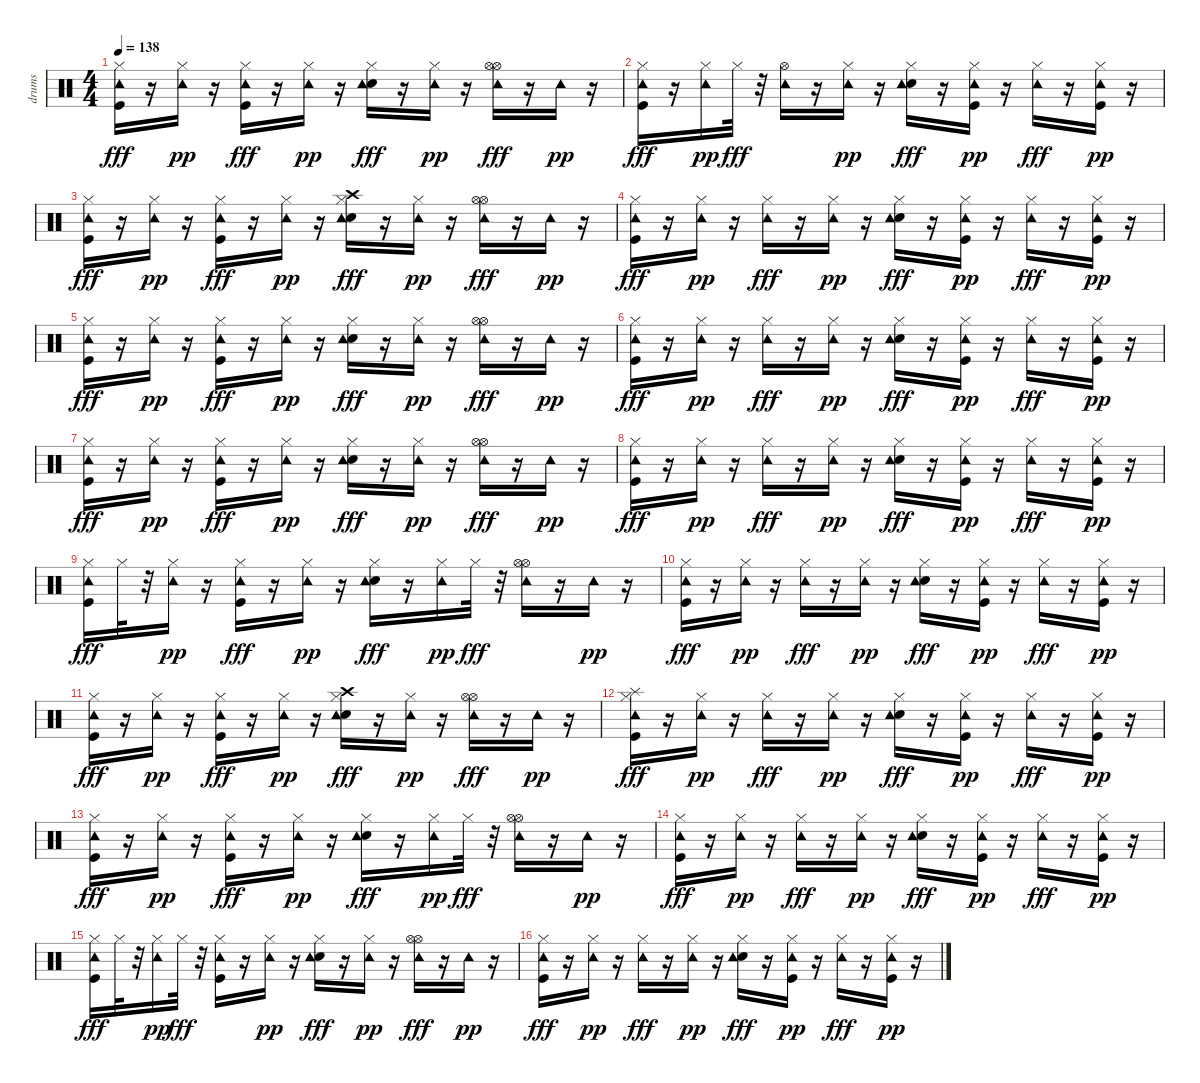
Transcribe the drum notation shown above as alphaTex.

\track ("drums" "drums") {instrument percussion}
\staff {score}
\articulation defaults
\ts (4 4)
\tempo 138
\clef neutral
\ks c
("Hi-Hat (closed)" "Kick (hit)" "Tambourine (hit)").16{dy fff} r.16 ("Hi-Hat (closed)" "Tambourine (hit)").16{dy pp} r.16 ("Hi-Hat (closed)" "Kick (hit)" "Tambourine (hit)").16{dy fff} r.16 ("Hi-Hat (closed)" "Tambourine (hit)").16{dy pp} r.16 ("Metronome (bell)" "Hi-Hat (closed)" "Tambourine (hit)").16{dy fff} r.16 ("Hi-Hat (closed)" "Tambourine (hit)").16{dy pp} r.16 ("Hi-Hat (open)" "Hi-Hat (open)" "Tambourine (hit)").16{dy fff} r.16 "Tambourine (hit)".16{dy pp} r.16 |
("Hi-Hat (closed)" "Kick (hit)" "Tambourine (hit)").16{dy fff} r.16 ("Hi-Hat (closed)" "Tambourine (hit)").16{dy pp} "Hi-Hat (closed)".32{dy fff} r.32 ("Hi-Hat (open)" "Tambourine (hit)").16 r.16 ("Hi-Hat (closed)" "Tambourine (hit)").16{dy pp} r.16 ("Metronome (bell)" "Hi-Hat (closed)" "Tambourine (hit)").16{dy fff} r.16 ("Hi-Hat (closed)" "Kick (hit)" "Tambourine (hit)").16{dy pp} r.16 ("Hi-Hat (closed)" "Tambourine (hit)").16{dy fff} r.16 ("Hi-Hat (closed)" "Kick (hit)" "Tambourine (hit)").16{dy pp} r.16 |
("Hi-Hat (closed)" "Kick (hit)" "Tambourine (hit)").16{dy fff} r.16 ("Hi-Hat (closed)" "Tambourine (hit)").16{dy pp} r.16 ("Hi-Hat (closed)" "Kick (hit)" "Tambourine (hit)").16{dy fff} r.16 ("Hi-Hat (closed)" "Tambourine (hit)").16{dy pp} r.16 ("Crash high (hit)" "Metronome (bell)" "Hi-Hat (closed)" "Tambourine (hit)").16{dy fff} r.16 ("Hi-Hat (closed)" "Tambourine (hit)").16{dy pp} r.16 ("Hi-Hat (open)" "Hi-Hat (open)" "Tambourine (hit)").16{dy fff} r.16 "Tambourine (hit)".16{dy pp} r.16 |
("Hi-Hat (closed)" "Kick (hit)" "Tambourine (hit)").16{dy fff} r.16 ("Hi-Hat (closed)" "Tambourine (hit)").16{dy pp} r.16 ("Hi-Hat (closed)" "Tambourine (hit)").16{dy fff} r.16 ("Hi-Hat (closed)" "Tambourine (hit)").16{dy pp} r.16 ("Metronome (bell)" "Hi-Hat (closed)" "Tambourine (hit)").16{dy fff} r.16 ("Hi-Hat (closed)" "Kick (hit)" "Tambourine (hit)").16{dy pp} r.16 ("Hi-Hat (closed)" "Tambourine (hit)").16{dy fff} r.16 ("Hi-Hat (closed)" "Kick (hit)" "Tambourine (hit)").16{dy pp} r.16 |
("Hi-Hat (closed)" "Kick (hit)" "Tambourine (hit)").16{dy fff} r.16 ("Hi-Hat (closed)" "Tambourine (hit)").16{dy pp} r.16 ("Hi-Hat (closed)" "Kick (hit)" "Tambourine (hit)").16{dy fff} r.16 ("Hi-Hat (closed)" "Tambourine (hit)").16{dy pp} r.16 ("Metronome (bell)" "Hi-Hat (closed)" "Tambourine (hit)").16{dy fff} r.16 ("Hi-Hat (closed)" "Tambourine (hit)").16{dy pp} r.16 ("Hi-Hat (open)" "Hi-Hat (open)" "Tambourine (hit)").16{dy fff} r.16 "Tambourine (hit)".16{dy pp} r.16 |
("Hi-Hat (closed)" "Kick (hit)" "Tambourine (hit)").16{dy fff} r.16 ("Hi-Hat (closed)" "Tambourine (hit)").16{dy pp} r.16 ("Hi-Hat (closed)" "Tambourine (hit)").16{dy fff} r.16 ("Hi-Hat (closed)" "Tambourine (hit)").16{dy pp} r.16 ("Metronome (bell)" "Hi-Hat (closed)" "Tambourine (hit)").16{dy fff} r.16 ("Hi-Hat (closed)" "Kick (hit)" "Tambourine (hit)").16{dy pp} r.16 ("Hi-Hat (closed)" "Tambourine (hit)").16{dy fff} r.16 ("Hi-Hat (closed)" "Kick (hit)" "Tambourine (hit)").16{dy pp} r.16 |
("Hi-Hat (closed)" "Kick (hit)" "Tambourine (hit)").16{dy fff} r.16 ("Hi-Hat (closed)" "Tambourine (hit)").16{dy pp} r.16 ("Hi-Hat (closed)" "Kick (hit)" "Tambourine (hit)").16{dy fff} r.16 ("Hi-Hat (closed)" "Tambourine (hit)").16{dy pp} r.16 ("Metronome (bell)" "Hi-Hat (closed)" "Tambourine (hit)").16{dy fff} r.16 ("Hi-Hat (closed)" "Tambourine (hit)").16{dy pp} r.16 ("Hi-Hat (open)" "Hi-Hat (open)" "Tambourine (hit)").16{dy fff} r.16 "Tambourine (hit)".16{dy pp} r.16 |
("Hi-Hat (closed)" "Kick (hit)" "Tambourine (hit)").16{dy fff} r.16 ("Hi-Hat (closed)" "Tambourine (hit)").16{dy pp} r.16 ("Hi-Hat (closed)" "Tambourine (hit)").16{dy fff} r.16 ("Hi-Hat (closed)" "Tambourine (hit)").16{dy pp} r.16 ("Metronome (bell)" "Hi-Hat (closed)" "Tambourine (hit)").16{dy fff} r.16 ("Hi-Hat (closed)" "Kick (hit)" "Tambourine (hit)").16{dy pp} r.16 ("Hi-Hat (closed)" "Tambourine (hit)").16{dy fff} r.16 ("Hi-Hat (closed)" "Kick (hit)" "Tambourine (hit)").16{dy pp} r.16 |
("Hi-Hat (closed)" "Kick (hit)" "Tambourine (hit)").16{dy fff} "Hi-Hat (closed)".32 r.32 ("Hi-Hat (closed)" "Tambourine (hit)").16{dy pp} r.16 ("Hi-Hat (closed)" "Kick (hit)" "Tambourine (hit)").16{dy fff} r.16 ("Hi-Hat (closed)" "Tambourine (hit)").16{dy pp} r.16 ("Metronome (bell)" "Hi-Hat (closed)" "Tambourine (hit)").16{dy fff} r.16 ("Hi-Hat (closed)" "Tambourine (hit)").16{dy pp} "Hi-Hat (closed)".32{dy fff} r.32 ("Hi-Hat (open)" "Hi-Hat (open)" "Tambourine (hit)").16 r.16 "Tambourine (hit)".16{dy pp} r.16 |
("Hi-Hat (closed)" "Kick (hit)" "Tambourine (hit)").16{dy fff} r.16 ("Hi-Hat (closed)" "Tambourine (hit)").16{dy pp} r.16 ("Hi-Hat (closed)" "Tambourine (hit)").16{dy fff} r.16 ("Hi-Hat (closed)" "Tambourine (hit)").16{dy pp} r.16 ("Metronome (bell)" "Hi-Hat (closed)" "Tambourine (hit)").16{dy fff} r.16 ("Hi-Hat (closed)" "Kick (hit)" "Tambourine (hit)").16{dy pp} r.16 ("Hi-Hat (closed)" "Tambourine (hit)").16{dy fff} r.16 ("Hi-Hat (closed)" "Kick (hit)" "Tambourine (hit)").16{dy pp} r.16 |
("Hi-Hat (closed)" "Kick (hit)" "Tambourine (hit)").16{dy fff} r.16 ("Hi-Hat (closed)" "Tambourine (hit)").16{dy pp} r.16 ("Hi-Hat (closed)" "Kick (hit)" "Tambourine (hit)").16{dy fff} r.16 ("Hi-Hat (closed)" "Tambourine (hit)").16{dy pp} r.16 ("Crash high (hit)" "Metronome (bell)" "Hi-Hat (closed)" "Tambourine (hit)").16{dy fff} r.16 ("Hi-Hat (closed)" "Tambourine (hit)").16{dy pp} r.16 ("Hi-Hat (open)" "Hi-Hat (open)" "Tambourine (hit)").16{dy fff} r.16 "Tambourine (hit)".16{dy pp} r.16 |
("Splash (hit)" "Hi-Hat (closed)" "Kick (hit)" "Tambourine (hit)").16{dy fff} r.16 ("Hi-Hat (closed)" "Tambourine (hit)").16{dy pp} r.16 ("Hi-Hat (closed)" "Tambourine (hit)").16{dy fff} r.16 ("Hi-Hat (closed)" "Tambourine (hit)").16{dy pp} r.16 ("Metronome (bell)" "Hi-Hat (closed)" "Tambourine (hit)").16{dy fff} r.16 ("Hi-Hat (closed)" "Kick (hit)" "Tambourine (hit)").16{dy pp} r.16 ("Hi-Hat (closed)" "Tambourine (hit)").16{dy fff} r.16 ("Hi-Hat (closed)" "Kick (hit)" "Tambourine (hit)").16{dy pp} r.16 |
("Hi-Hat (closed)" "Kick (hit)" "Tambourine (hit)").16{dy fff} r.16 ("Hi-Hat (closed)" "Tambourine (hit)").16{dy pp} r.16 ("Hi-Hat (closed)" "Kick (hit)" "Tambourine (hit)").16{dy fff} r.16 ("Hi-Hat (closed)" "Tambourine (hit)").16{dy pp} r.16 ("Metronome (bell)" "Hi-Hat (closed)" "Tambourine (hit)").16{dy fff} r.16 ("Hi-Hat (closed)" "Tambourine (hit)").16{dy pp} "Hi-Hat (closed)".32{dy fff} r.32 ("Hi-Hat (open)" "Hi-Hat (open)" "Tambourine (hit)").16 r.16 "Tambourine (hit)".16{dy pp} r.16 |
("Hi-Hat (closed)" "Kick (hit)" "Tambourine (hit)").16{dy fff} r.16 ("Hi-Hat (closed)" "Tambourine (hit)").16{dy pp} r.16 ("Hi-Hat (closed)" "Tambourine (hit)").16{dy fff} r.16 ("Hi-Hat (closed)" "Tambourine (hit)").16{dy pp} r.16 ("Metronome (bell)" "Hi-Hat (closed)" "Tambourine (hit)").16{dy fff} r.16 ("Hi-Hat (closed)" "Kick (hit)" "Tambourine (hit)").16{dy pp} r.16 ("Hi-Hat (closed)" "Tambourine (hit)").16{dy fff} r.16 ("Hi-Hat (closed)" "Kick (hit)" "Tambourine (hit)").16{dy pp} r.16 |
("Hi-Hat (closed)" "Kick (hit)" "Tambourine (hit)").16{dy fff} "Hi-Hat (closed)".32 r.32 ("Hi-Hat (closed)" "Tambourine (hit)").16{dy pp} "Hi-Hat (closed)".32{dy fff} r.32 ("Hi-Hat (closed)" "Kick (hit)" "Tambourine (hit)").16 r.16 ("Hi-Hat (closed)" "Tambourine (hit)").16{dy pp} r.16 ("Metronome (bell)" "Hi-Hat (closed)" "Tambourine (hit)").16{dy fff} r.16 ("Hi-Hat (closed)" "Tambourine (hit)").16{dy pp} r.16 ("Hi-Hat (open)" "Hi-Hat (open)" "Tambourine (hit)").16{dy fff} r.16 "Tambourine (hit)".16{dy pp} r.16 |
("Hi-Hat (closed)" "Kick (hit)" "Tambourine (hit)").16{dy fff} r.16 ("Hi-Hat (closed)" "Tambourine (hit)").16{dy pp} r.16 ("Hi-Hat (closed)" "Tambourine (hit)").16{dy fff} r.16 ("Hi-Hat (closed)" "Tambourine (hit)").16{dy pp} r.16 ("Metronome (bell)" "Hi-Hat (closed)" "Tambourine (hit)").16{dy fff} r.16 ("Hi-Hat (closed)" "Kick (hit)" "Tambourine (hit)").16{dy pp} r.16 ("Hi-Hat (closed)" "Tambourine (hit)").16{dy fff} r.16 ("Hi-Hat (closed)" "Kick (hit)" "Tambourine (hit)").16{dy pp} r.16
